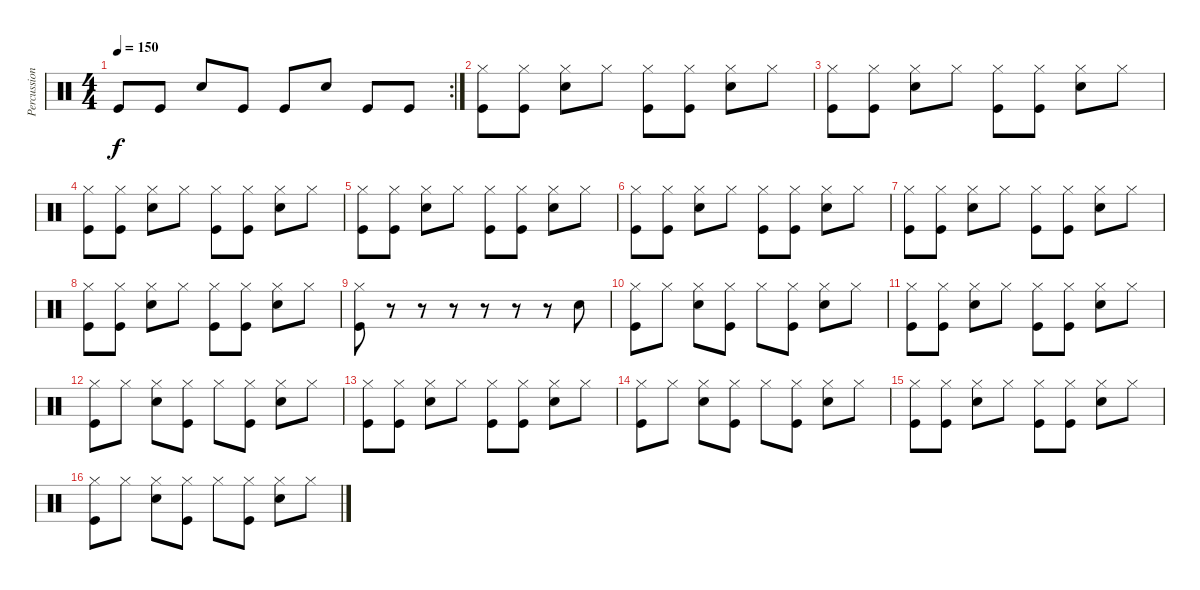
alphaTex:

\track ("Percussion" "Percussion") {instrument percussion}
\staff {score}
\articulation defaults
\rc 2
\ts (4 4)
\tempo 150
\clef neutral
\ks c "Kick (hit)".8{dy f} "Kick (hit)".8 "Electric Snare (hit)".8 "Kick (hit)".8 "Kick (hit)".8 "Electric Snare (hit)".8 "Kick (hit)".8 "Kick (hit)".8
|
("Hi-Hat (closed)" "Kick (hit)").8 ("Hi-Hat (closed)" "Kick (hit)").8 ("Hi-Hat (closed)" "Electric Snare (hit)").8 "Hi-Hat (closed)".8 ("Hi-Hat (closed)" "Kick (hit)").8 ("Hi-Hat (closed)" "Kick (hit)").8 ("Hi-Hat (closed)" "Electric Snare (hit)").8 "Hi-Hat (closed)".8 |
("Hi-Hat (closed)" "Kick (hit)").8 ("Hi-Hat (closed)" "Kick (hit)").8 ("Hi-Hat (closed)" "Electric Snare (hit)").8 "Hi-Hat (closed)".8 ("Hi-Hat (closed)" "Kick (hit)").8 ("Hi-Hat (closed)" "Kick (hit)").8 ("Hi-Hat (closed)" "Electric Snare (hit)").8 "Hi-Hat (closed)".8 |
("Hi-Hat (closed)" "Kick (hit)").8 ("Hi-Hat (closed)" "Kick (hit)").8 ("Hi-Hat (closed)" "Electric Snare (hit)").8 "Hi-Hat (closed)".8 ("Hi-Hat (closed)" "Kick (hit)").8 ("Hi-Hat (closed)" "Kick (hit)").8 ("Hi-Hat (closed)" "Electric Snare (hit)").8 "Hi-Hat (closed)".8 |
("Hi-Hat (closed)" "Kick (hit)").8 ("Hi-Hat (closed)" "Kick (hit)").8 ("Hi-Hat (closed)" "Electric Snare (hit)").8 "Hi-Hat (closed)".8 ("Hi-Hat (closed)" "Kick (hit)").8 ("Hi-Hat (closed)" "Kick (hit)").8 ("Hi-Hat (closed)" "Electric Snare (hit)").8 "Hi-Hat (closed)".8 |
("Hi-Hat (closed)" "Kick (hit)").8 ("Hi-Hat (closed)" "Kick (hit)").8 ("Hi-Hat (closed)" "Electric Snare (hit)").8 "Hi-Hat (closed)".8 ("Hi-Hat (closed)" "Kick (hit)").8 ("Hi-Hat (closed)" "Kick (hit)").8 ("Hi-Hat (closed)" "Electric Snare (hit)").8 "Hi-Hat (closed)".8 |
("Hi-Hat (closed)" "Kick (hit)").8 ("Hi-Hat (closed)" "Kick (hit)").8 ("Hi-Hat (closed)" "Electric Snare (hit)").8 "Hi-Hat (closed)".8 ("Hi-Hat (closed)" "Kick (hit)").8 ("Hi-Hat (closed)" "Kick (hit)").8 ("Hi-Hat (closed)" "Electric Snare (hit)").8 "Hi-Hat (closed)".8 |
("Hi-Hat (closed)" "Kick (hit)").8 ("Hi-Hat (closed)" "Kick (hit)").8 ("Hi-Hat (closed)" "Electric Snare (hit)").8 "Hi-Hat (closed)".8 ("Hi-Hat (closed)" "Kick (hit)").8 ("Hi-Hat (closed)" "Kick (hit)").8 ("Hi-Hat (closed)" "Electric Snare (hit)").8 "Hi-Hat (closed)".8 |
("Hi-Hat (closed)" "Kick (hit)").8 r.8 r.8 r.8 r.8 r.8 r.8 "Electric Snare (hit)".8 |
("Hi-Hat (closed)" "Kick (hit)").8 "Hi-Hat (closed)".8 ("Hi-Hat (closed)" "Electric Snare (hit)").8 ("Hi-Hat (closed)" "Kick (hit)").8 "Hi-Hat (closed)".8 ("Hi-Hat (closed)" "Kick (hit)").8 ("Hi-Hat (closed)" "Electric Snare (hit)").8 "Hi-Hat (closed)".8 |
("Hi-Hat (closed)" "Kick (hit)").8 ("Hi-Hat (closed)" "Kick (hit)").8 ("Hi-Hat (closed)" "Electric Snare (hit)").8 "Hi-Hat (closed)".8 ("Hi-Hat (closed)" "Kick (hit)").8 ("Hi-Hat (closed)" "Kick (hit)").8 ("Hi-Hat (closed)" "Electric Snare (hit)").8 "Hi-Hat (closed)".8 |
("Hi-Hat (closed)" "Kick (hit)").8 "Hi-Hat (closed)".8 ("Hi-Hat (closed)" "Electric Snare (hit)").8 ("Hi-Hat (closed)" "Kick (hit)").8 "Hi-Hat (closed)".8 ("Hi-Hat (closed)" "Kick (hit)").8 ("Hi-Hat (closed)" "Electric Snare (hit)").8 "Hi-Hat (closed)".8 |
("Hi-Hat (closed)" "Kick (hit)").8 ("Hi-Hat (closed)" "Kick (hit)").8 ("Hi-Hat (closed)" "Electric Snare (hit)").8 "Hi-Hat (closed)".8 ("Hi-Hat (closed)" "Kick (hit)").8 ("Hi-Hat (closed)" "Kick (hit)").8 ("Hi-Hat (closed)" "Electric Snare (hit)").8 "Hi-Hat (closed)".8 |
("Hi-Hat (closed)" "Kick (hit)").8 "Hi-Hat (closed)".8 ("Hi-Hat (closed)" "Electric Snare (hit)").8 ("Hi-Hat (closed)" "Kick (hit)").8 "Hi-Hat (closed)".8 ("Hi-Hat (closed)" "Kick (hit)").8 ("Hi-Hat (closed)" "Electric Snare (hit)").8 "Hi-Hat (closed)".8 |
("Hi-Hat (closed)" "Kick (hit)").8 ("Hi-Hat (closed)" "Kick (hit)").8 ("Hi-Hat (closed)" "Electric Snare (hit)").8 "Hi-Hat (closed)".8 ("Hi-Hat (closed)" "Kick (hit)").8 ("Hi-Hat (closed)" "Kick (hit)").8 ("Hi-Hat (closed)" "Electric Snare (hit)").8 "Hi-Hat (closed)".8 |
("Hi-Hat (closed)" "Kick (hit)").8 "Hi-Hat (closed)".8 ("Hi-Hat (closed)" "Electric Snare (hit)").8 ("Hi-Hat (closed)" "Kick (hit)").8 "Hi-Hat (closed)".8 ("Hi-Hat (closed)" "Kick (hit)").8 ("Hi-Hat (closed)" "Electric Snare (hit)").8 "Hi-Hat (closed)".8
